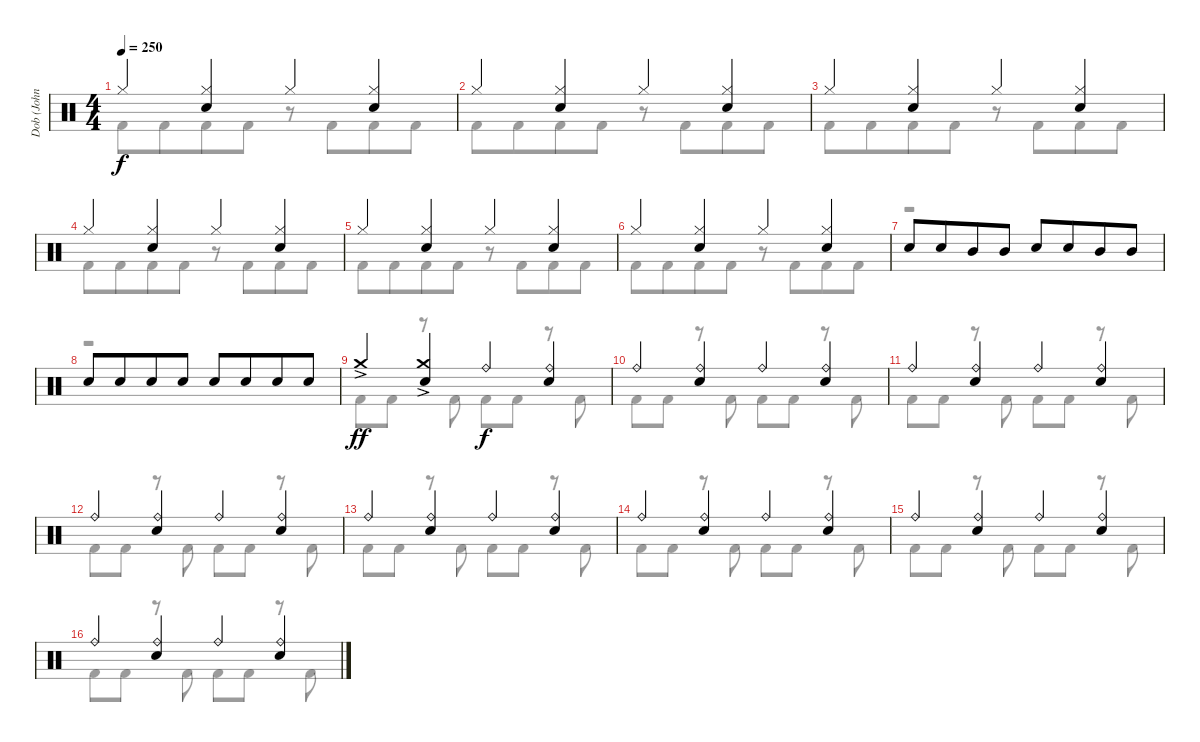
\track ("Dob (John Macaluso)" "Dob (John ") {instrument percussion}
\staff {score}
\articulation defaults
\voice
\ts (4 4)
\tempo 250
\clef neutral
\ks c "Hi-Hat (closed)".4{dy f}
("Hi-Hat (closed)" "Electric Snare (hit)").4 "Hi-Hat (closed)".4 ("Hi-Hat (closed)" "Electric Snare (hit)").4 |
"Hi-Hat (closed)".4 ("Hi-Hat (closed)" "Electric Snare (hit)").4 "Hi-Hat (closed)".4 ("Hi-Hat (closed)" "Electric Snare (hit)").4 |
"Hi-Hat (closed)".4 ("Hi-Hat (closed)" "Electric Snare (hit)").4 "Hi-Hat (closed)".4 ("Hi-Hat (closed)" "Electric Snare (hit)").4 |
"Hi-Hat (closed)".4 ("Hi-Hat (closed)" "Electric Snare (hit)").4 "Hi-Hat (closed)".4 ("Hi-Hat (closed)" "Electric Snare (hit)").4 |
"Hi-Hat (closed)".4 ("Hi-Hat (closed)" "Electric Snare (hit)").4 "Hi-Hat (closed)".4 ("Hi-Hat (closed)" "Electric Snare (hit)").4 |
"Hi-Hat (closed)".4 ("Hi-Hat (closed)" "Electric Snare (hit)").4 "Hi-Hat (closed)".4 ("Hi-Hat (closed)" "Electric Snare (hit)").4 |
"Electric Snare (hit)".8 "Electric Snare (hit)".8{beam merge} "Mid Tom (hit)".8 "Mid Tom (hit)".8 "Electric Snare (hit)".8 "Electric Snare (hit)".8{beam merge} "Mid Tom (hit)".8 "Mid Tom (hit)".8 |
"Electric Snare (hit)".8 "Electric Snare (hit)".8{beam merge} "Electric Snare (hit)".8 "Electric Snare (hit)".8{beam split} "Electric Snare (hit)".8 "Electric Snare (hit)".8{beam merge} "Electric Snare (hit)".8 "Electric Snare (hit)".8 |
"Crash medium (hit)"{ac}.4{dy ff} ("Crash medium (hit)"{ac} "Electric Snare (hit)").4 "Ride (bell)".4{dy f} ("Ride (bell)" "Electric Snare (hit)").4 |
"Ride (bell)".4 ("Ride (bell)" "Electric Snare (hit)").4 "Ride (bell)".4 ("Ride (bell)" "Electric Snare (hit)").4 |
"Ride (bell)".4 ("Ride (bell)" "Electric Snare (hit)").4 "Ride (bell)".4 ("Ride (bell)" "Electric Snare (hit)").4 |
"Ride (bell)".4 ("Ride (bell)" "Electric Snare (hit)").4 "Ride (bell)".4 ("Ride (bell)" "Electric Snare (hit)").4 |
"Ride (bell)".4 ("Ride (bell)" "Electric Snare (hit)").4 "Ride (bell)".4 ("Ride (bell)" "Electric Snare (hit)").4 |
"Ride (bell)".4 ("Ride (bell)" "Electric Snare (hit)").4 "Ride (bell)".4 ("Ride (bell)" "Electric Snare (hit)").4 |
"Ride (bell)".4 ("Ride (bell)" "Electric Snare (hit)").4 "Ride (bell)".4 ("Ride (bell)" "Electric Snare (hit)").4 |
"Ride (bell)".4 ("Ride (bell)" "Electric Snare (hit)").4 "Ride (bell)".4 ("Ride (bell)" "Electric Snare (hit)").4
\voice
\clef neutral
\ottava regular
\simile none
\ks c "Kick (hit) 2".8{dy f} "Kick (hit) 2".8{beam merge} "Kick (hit) 2".8 "Kick (hit) 2".8
r.8 "Kick (hit) 2".8{beam merge} "Kick (hit) 2".8 "Kick (hit) 2".8 |
"Kick (hit) 2".8 "Kick (hit) 2".8{beam merge} "Kick (hit) 2".8 "Kick (hit) 2".8 r.8 "Kick (hit) 2".8{beam merge} "Kick (hit) 2".8 "Kick (hit) 2".8 |
"Kick (hit) 2".8 "Kick (hit) 2".8{beam merge} "Kick (hit) 2".8 "Kick (hit) 2".8 r.8 "Kick (hit) 2".8{beam merge} "Kick (hit) 2".8 "Kick (hit) 2".8 |
"Kick (hit) 2".8 "Kick (hit) 2".8{beam merge} "Kick (hit) 2".8 "Kick (hit) 2".8 r.8 "Kick (hit) 2".8{beam merge} "Kick (hit) 2".8 "Kick (hit) 2".8 |
"Kick (hit) 2".8 "Kick (hit) 2".8{beam merge} "Kick (hit) 2".8 "Kick (hit) 2".8 r.8 "Kick (hit) 2".8{beam merge} "Kick (hit) 2".8 "Kick (hit) 2".8 |
"Kick (hit) 2".8 "Kick (hit) 2".8{beam merge} "Kick (hit) 2".8 "Kick (hit) 2".8 r.8 "Kick (hit) 2".8{beam merge} "Kick (hit) 2".8 "Kick (hit) 2".8 |
r.1 |
r.1 |
"Kick (hit) 2".8 "Kick (hit) 2".8 r.8 "Kick (hit) 2".8 "Kick (hit) 2".8 "Kick (hit) 2".8 r.8 "Kick (hit) 2".8 |
"Kick (hit) 2".8 "Kick (hit) 2".8 r.8 "Kick (hit) 2".8 "Kick (hit) 2".8 "Kick (hit) 2".8 r.8 "Kick (hit) 2".8 |
"Kick (hit) 2".8 "Kick (hit) 2".8 r.8 "Kick (hit) 2".8 "Kick (hit) 2".8 "Kick (hit) 2".8 r.8 "Kick (hit) 2".8 |
"Kick (hit) 2".8 "Kick (hit) 2".8 r.8 "Kick (hit) 2".8 "Kick (hit) 2".8 "Kick (hit) 2".8 r.8 "Kick (hit) 2".8 |
"Kick (hit) 2".8 "Kick (hit) 2".8 r.8 "Kick (hit) 2".8 "Kick (hit) 2".8 "Kick (hit) 2".8 r.8 "Kick (hit) 2".8 |
"Kick (hit) 2".8 "Kick (hit) 2".8 r.8 "Kick (hit) 2".8 "Kick (hit) 2".8 "Kick (hit) 2".8 r.8 "Kick (hit) 2".8 |
"Kick (hit) 2".8 "Kick (hit) 2".8 r.8 "Kick (hit) 2".8 "Kick (hit) 2".8 "Kick (hit) 2".8 r.8 "Kick (hit) 2".8 |
"Kick (hit) 2".8 "Kick (hit) 2".8 r.8 "Kick (hit) 2".8 "Kick (hit) 2".8 "Kick (hit) 2".8 r.8 "Kick (hit) 2".8
